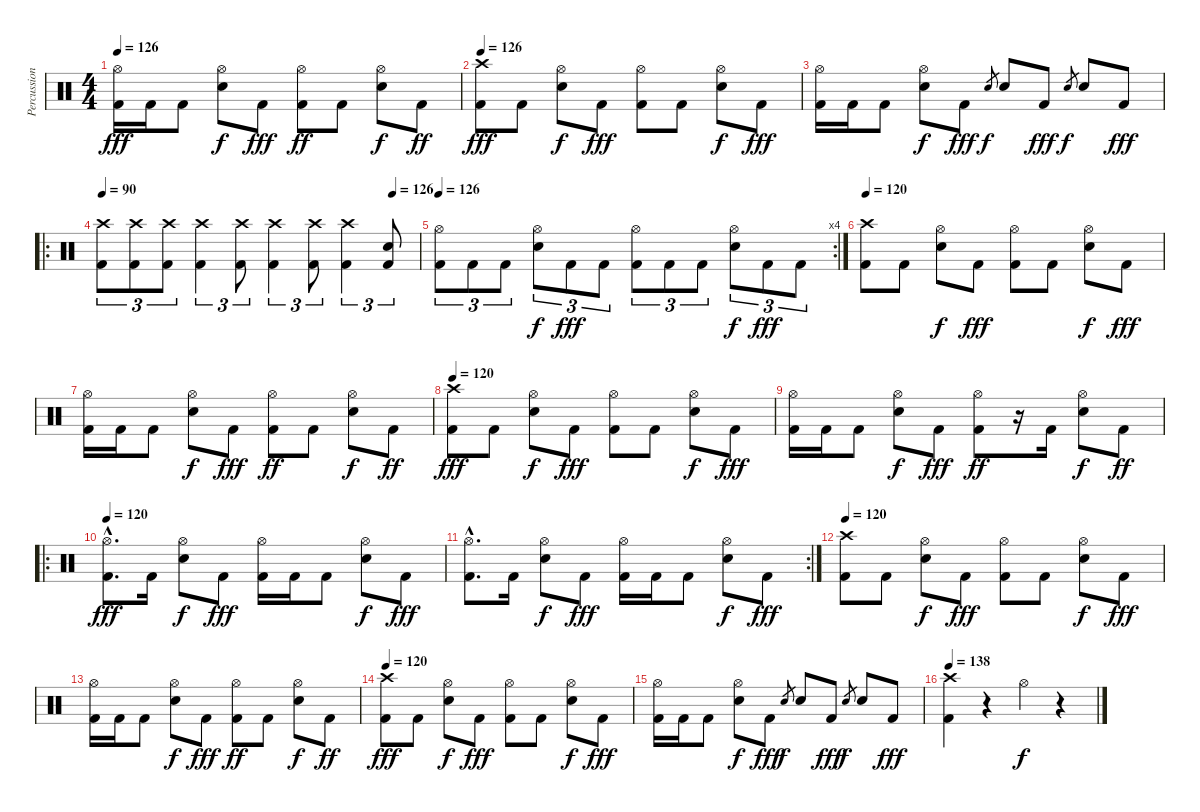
\track ("Percussion" "Percussion") {instrument percussion}
\staff {score}
\articulation defaults
\ts (4 4)
\tempo 126
\clef neutral
\ks c
("Hi-Hat (open)" "Kick (hit) 2").16{dy fff} "Kick (hit) 2".16 "Kick (hit) 2".8 ("Hi-Hat (open)" "Snare (hit) 2").8{dy f} "Kick (hit) 2".8{dy fff} ("Hi-Hat (open)" "Kick (hit) 2").8{dy ff} "Kick (hit) 2".8 ("Hi-Hat (open)" "Snare (hit) 2").8{dy f} "Kick (hit) 2".8{dy ff} |
\tempo 126
("Crash high (hit)" "Kick (hit) 2").8{dy fff} "Kick (hit) 2".8 ("Hi-Hat (open)" "Snare (hit) 2").8{dy f} "Kick (hit) 2".8{dy fff} ("Hi-Hat (open)" "Kick (hit) 2").8 "Kick (hit) 2".8 ("Hi-Hat (open)" "Snare (hit) 2").8{dy f} "Kick (hit) 2".8{dy fff} |
("Hi-Hat (open)" "Kick (hit) 2").16 "Kick (hit) 2".16 "Kick (hit) 2".8 ("Hi-Hat (open)" "Snare (hit) 2").8{dy f} "Kick (hit) 2".8{dy fff} "Snare (hit) 2".8{gr dy f} "Snare (hit) 2".8 "Kick (hit) 2".8{dy fff} "Snare (hit) 2".8{gr dy f} "Snare (hit) 2".8 "Kick (hit) 2".8{dy fff} |
\ro
\tempo 90
\tempo (126 0.9166666666666666)
("Crash high (hit)" "Kick (hit) 2").8{tu (3 2)} ("Crash high (hit)" "Kick (hit) 2").8{tu (3 2)} ("Crash high (hit)" "Kick (hit) 2").8{tu (3 2)} ("Crash high (hit)" "Kick (hit) 2").4{tu (3 2)} ("Crash high (hit)" "Kick (hit) 2").8{tu (3 2)} ("Crash high (hit)" "Kick (hit) 2").4{tu (3 2)} ("Crash high (hit)" "Kick (hit) 2").8{tu (3 2)} ("Crash high (hit)" "Kick (hit) 2").4{tu (3 2)} ("Snare (hit) 2" "Kick (hit) 2").8{tu (3 2)} |
\rc 4
\tempo 126
("Hi-Hat (open)" "Kick (hit) 2").8{tu (3 2)} "Kick (hit) 2".8{tu (3 2)} "Kick (hit) 2".8{tu (3 2)} ("Hi-Hat (open)" "Snare (hit) 2").8{tu (3 2) dy f} "Kick (hit) 2".8{tu (3 2) dy fff} "Kick (hit) 2".8{tu (3 2)} ("Hi-Hat (open)" "Kick (hit) 2").8{tu (3 2)} "Kick (hit) 2".8{tu (3 2)} "Kick (hit) 2".8{tu (3 2)} ("Hi-Hat (open)" "Snare (hit) 2").8{tu (3 2) dy f} "Kick (hit) 2".8{tu (3 2) dy fff} "Kick (hit) 2".8{tu (3 2)} |
\tempo 120
("Crash high (hit)" "Kick (hit) 2").8 "Kick (hit) 2".8 ("Hi-Hat (open)" "Snare (hit) 2").8{dy f} "Kick (hit) 2".8{dy fff} ("Hi-Hat (open)" "Kick (hit) 2").8 "Kick (hit) 2".8 ("Hi-Hat (open)" "Snare (hit) 2").8{dy f} "Kick (hit) 2".8{dy fff} |
("Hi-Hat (open)" "Kick (hit) 2").16 "Kick (hit) 2".16 "Kick (hit) 2".8 ("Hi-Hat (open)" "Snare (hit) 2").8{dy f} "Kick (hit) 2".8{dy fff} ("Hi-Hat (open)" "Kick (hit) 2").8{dy ff} "Kick (hit) 2".8 ("Hi-Hat (open)" "Snare (hit) 2").8{dy f} "Kick (hit) 2".8{dy ff} |
\tempo 120
("Crash high (hit)" "Kick (hit) 2").8{dy fff} "Kick (hit) 2".8 ("Hi-Hat (open)" "Snare (hit) 2").8{dy f} "Kick (hit) 2".8{dy fff} ("Hi-Hat (open)" "Kick (hit) 2").8 "Kick (hit) 2".8 ("Hi-Hat (open)" "Snare (hit) 2").8{dy f} "Kick (hit) 2".8{dy fff} |
("Hi-Hat (open)" "Kick (hit) 2").16 "Kick (hit) 2".16 "Kick (hit) 2".8 ("Hi-Hat (open)" "Snare (hit) 2").8{dy f} "Kick (hit) 2".8{dy fff} ("Hi-Hat (open)" "Kick (hit) 2").8{dy ff} r.16 "Kick (hit) 2".16 ("Hi-Hat (open)" "Snare (hit) 2").8{dy f} "Kick (hit) 2".8{dy ff} |
\ro
\tempo 120
("Hi-Hat (open)"{hac} "Kick (hit) 2"{hac}).8{d dy fff} "Kick (hit) 2".16 ("Hi-Hat (open)" "Snare (hit) 2").8{dy f} "Kick (hit) 2".8{dy fff} ("Hi-Hat (open)" "Kick (hit) 2").16 "Kick (hit) 2".16 "Kick (hit) 2".8 ("Hi-Hat (open)" "Snare (hit) 2").8{dy f} "Kick (hit) 2".8{dy fff} |
\rc 2
("Hi-Hat (open)"{hac} "Kick (hit) 2"{hac}).8{d} "Kick (hit) 2".16 ("Hi-Hat (open)" "Snare (hit) 2").8{dy f} "Kick (hit) 2".8{dy fff} ("Hi-Hat (open)" "Kick (hit) 2").16 "Kick (hit) 2".16 "Kick (hit) 2".8 ("Hi-Hat (open)" "Snare (hit) 2").8{dy f} "Kick (hit) 2".8{dy fff} |
\tempo 120
("Crash high (hit)" "Kick (hit) 2").8 "Kick (hit) 2".8 ("Hi-Hat (open)" "Snare (hit) 2").8{dy f} "Kick (hit) 2".8{dy fff} ("Hi-Hat (open)" "Kick (hit) 2").8 "Kick (hit) 2".8 ("Hi-Hat (open)" "Snare (hit) 2").8{dy f} "Kick (hit) 2".8{dy fff} |
("Hi-Hat (open)" "Kick (hit) 2").16 "Kick (hit) 2".16 "Kick (hit) 2".8 ("Hi-Hat (open)" "Snare (hit) 2").8{dy f} "Kick (hit) 2".8{dy fff} ("Hi-Hat (open)" "Kick (hit) 2").8{dy ff} "Kick (hit) 2".8 ("Hi-Hat (open)" "Snare (hit) 2").8{dy f} "Kick (hit) 2".8{dy ff} |
\tempo 120
("Crash high (hit)" "Kick (hit) 2").8{dy fff} "Kick (hit) 2".8 ("Hi-Hat (open)" "Snare (hit) 2").8{dy f} "Kick (hit) 2".8{dy fff} ("Hi-Hat (open)" "Kick (hit) 2").8 "Kick (hit) 2".8 ("Hi-Hat (open)" "Snare (hit) 2").8{dy f} "Kick (hit) 2".8{dy fff} |
("Hi-Hat (open)" "Kick (hit) 2").16 "Kick (hit) 2".16 "Kick (hit) 2".8 ("Hi-Hat (open)" "Snare (hit) 2").8{dy f} "Kick (hit) 2".8{dy fff} "Snare (hit) 2".8{gr dy f} "Snare (hit) 2".8 "Kick (hit) 2".8{dy fff} "Snare (hit) 2".8{gr dy f} "Snare (hit) 2".8 "Kick (hit) 2".8{dy fff} |
\tempo 138
("Crash high (hit)" "Kick (hit) 2").4 r.4 "Hi-Hat (open)".4{dy f} r.4
